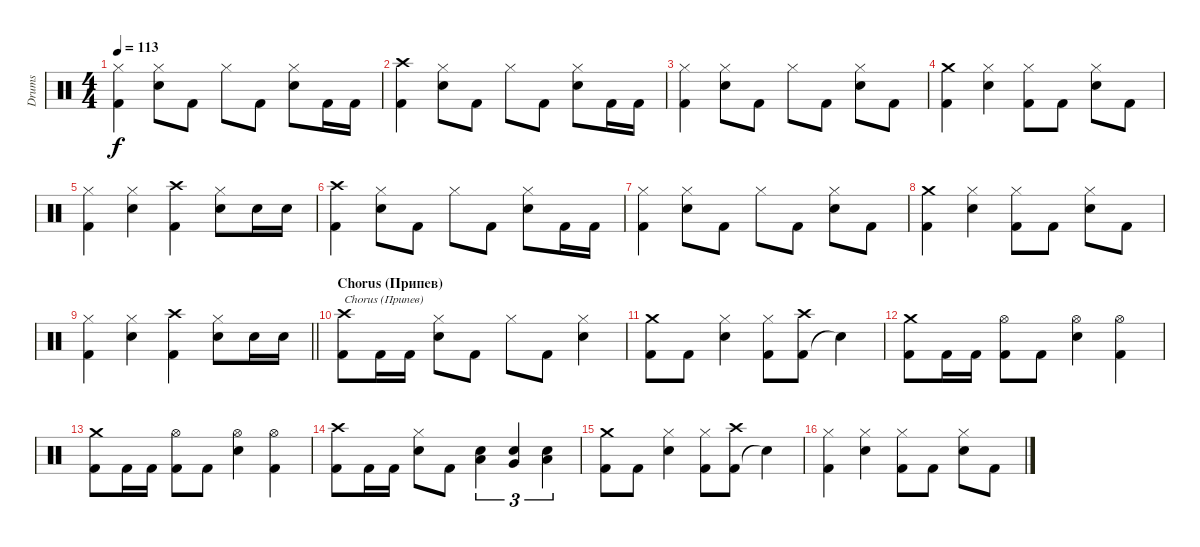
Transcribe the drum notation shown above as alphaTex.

\track ("Drums" "Drums") {instrument percussion}
\staff {score}
\articulation defaults
\ts (4 4)
\tempo 113
\clef neutral
\ks c
("Kick (hit) 2" "Hi-Hat (closed)").4{dy f} ("Snare (hit) 2" "Hi-Hat (closed)").8 "Kick (hit) 2".8 "Hi-Hat (closed)".8 "Kick (hit) 2".8 ("Snare (hit) 2" "Hi-Hat (closed)").8 "Kick (hit) 2".16 "Kick (hit) 2".16 |
("Kick (hit) 2" "Crash high (hit)").4 ("Snare (hit) 2" "Hi-Hat (closed)").8 "Kick (hit) 2".8 "Hi-Hat (closed)".8 "Kick (hit) 2".8 ("Snare (hit) 2" "Hi-Hat (closed)").8 "Kick (hit) 2".16 "Kick (hit) 2".16 |
("Kick (hit) 2" "Hi-Hat (closed)").4 ("Snare (hit) 2" "Hi-Hat (closed)").8 "Kick (hit) 2".8 "Hi-Hat (closed)".8 "Kick (hit) 2".8 ("Snare (hit) 2" "Hi-Hat (closed)").8 "Kick (hit) 2".8 |
("Kick (hit) 2" "Crash medium (hit)").4 ("Snare (hit) 2" "Hi-Hat (closed)").4 ("Kick (hit) 2" "Hi-Hat (closed)").8 "Kick (hit) 2".8 ("Snare (hit) 2" "Hi-Hat (closed)").8 "Kick (hit) 2".8 |
("Kick (hit) 2" "Hi-Hat (closed)").4 ("Snare (hit) 2" "Hi-Hat (closed)").4 ("Kick (hit) 2" "Crash high (hit)").4 ("Snare (hit) 2" "Hi-Hat (closed)").8 "Snare (hit) 2".16 "Snare (hit) 2".16 |
("Kick (hit) 2" "Crash high (hit)").4 ("Snare (hit) 2" "Hi-Hat (closed)").8 "Kick (hit) 2".8 "Hi-Hat (closed)".8 "Kick (hit) 2".8 ("Snare (hit) 2" "Hi-Hat (closed)").8 "Kick (hit) 2".16 "Kick (hit) 2".16 |
("Kick (hit) 2" "Hi-Hat (closed)").4 ("Snare (hit) 2" "Hi-Hat (closed)").8 "Kick (hit) 2".8 "Hi-Hat (closed)".8 "Kick (hit) 2".8 ("Snare (hit) 2" "Hi-Hat (closed)").8 "Kick (hit) 2".8 |
("Kick (hit) 2" "Crash medium (hit)").4 ("Snare (hit) 2" "Hi-Hat (closed)").4 ("Kick (hit) 2" "Hi-Hat (closed)").8 "Kick (hit) 2".8 ("Snare (hit) 2" "Hi-Hat (closed)").8 "Kick (hit) 2".8 |
\barLineRight lightlight
("Kick (hit) 2" "Hi-Hat (closed)").4 ("Snare (hit) 2" "Hi-Hat (closed)").4 ("Kick (hit) 2" "Crash high (hit)").4 ("Snare (hit) 2" "Hi-Hat (closed)").8 "Snare (hit) 2".16 "Snare (hit) 2".16 |
\section ("" "Chorus (Припев)")
("Kick (hit) 2" "Crash high (hit)").8{txt "Chorus (Припев)"} "Kick (hit) 2".16 "Kick (hit) 2".16 ("Snare (hit) 2" "Hi-Hat (closed)").8 "Kick (hit) 2".8 "Hi-Hat (closed)".8 "Kick (hit) 2".8 ("Snare (hit) 2" "Hi-Hat (closed)").4 |
("Kick (hit) 2" "Crash medium (hit)").8 "Kick (hit) 2".8 ("Snare (hit) 2" "Hi-Hat (closed)").4 ("Kick (hit) 2" "Hi-Hat (closed)").8 ("Kick (hit) 2" "Crash high (hit)").8 "Snare (hit)"{t}.4 |
("Kick (hit) 2" "Crash medium (hit)").8 "Kick (hit) 2".16 "Kick (hit) 2".16 ("Kick (hit) 2" "Hi-Hat (open)").8 "Kick (hit) 2".8 ("Snare (hit) 2" "Hi-Hat (open)").4 ("Kick (hit) 2" "Hi-Hat (open)").4 |
("Kick (hit) 2" "Crash medium (hit)").8 "Kick (hit) 2".16 "Kick (hit) 2".16 ("Kick (hit) 2" "Hi-Hat (open)").8 "Kick (hit) 2".8 ("Snare (hit) 2" "Hi-Hat (open)").4 ("Kick (hit) 2" "Hi-Hat (open)").4 |
("Kick (hit) 2" "Crash high (hit)").8 "Kick (hit) 2".16 "Kick (hit) 2".16 ("Snare (hit) 2" "Hi-Hat (closed)").8 "Kick (hit) 2".8 ("Snare (hit) 2" "Low Tom (hit)").4{tu (3 2)} ("Snare (hit) 2" "Very Low Tom (hit)").4{tu (3 2)} ("Snare (hit) 2" "Low Floor Tom (hit)").4{tu (3 2)} |
("Kick (hit) 2" "Crash medium (hit)").8 "Kick (hit) 2".8 ("Snare (hit) 2" "Hi-Hat (closed)").4 ("Kick (hit) 2" "Hi-Hat (closed)").8 ("Kick (hit) 2" "Crash high (hit)").8 "Snare (hit)"{t}.4 |
("Kick (hit) 2" "Hi-Hat (closed)").4 ("Snare (hit) 2" "Hi-Hat (closed)").4 ("Kick (hit) 2" "Hi-Hat (closed)").8 "Kick (hit) 2".8 ("Snare (hit) 2" "Hi-Hat (closed)").8 "Kick (hit) 2".8
